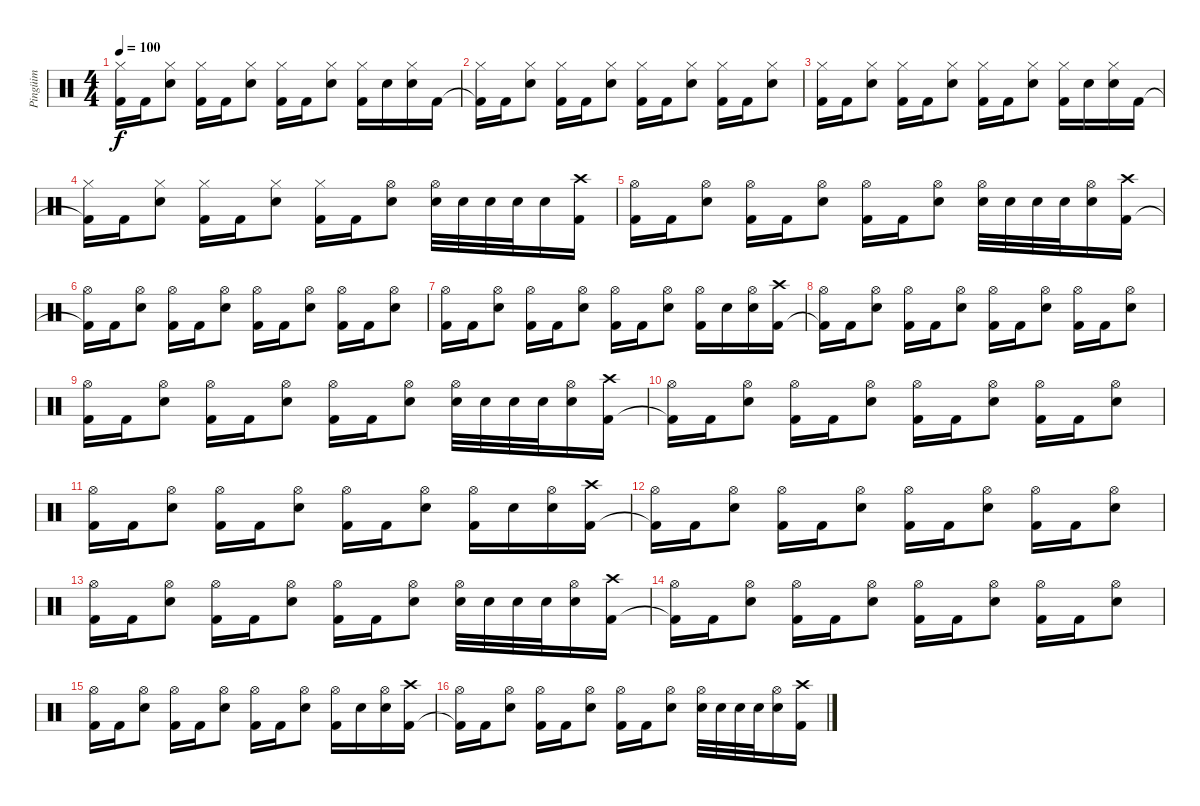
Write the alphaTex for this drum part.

\track ("Pingüim" "Pingüim") {instrument percussion}
\staff {score}
\articulation defaults
\ts (4 4)
\tempo 100
\clef neutral
\ks c
("Kick (hit) 2" "Hi-Hat (closed)").16{dy f} "Kick (hit) 2".16 ("Snare (hit) 2" "Hi-Hat (closed)").8 ("Kick (hit) 2" "Hi-Hat (closed)").16 "Kick (hit) 2".16 ("Snare (hit) 2" "Hi-Hat (closed)").8 ("Kick (hit) 2" "Hi-Hat (closed)").16 "Kick (hit) 2".16 ("Snare (hit) 2" "Hi-Hat (closed)").8 ("Kick (hit) 2" "Hi-Hat (closed)").16 "Snare (hit) 2".16 ("Snare (hit) 2" "Hi-Hat (closed)").16 "Kick (hit) 2".16 |
("Kick (hit) 2"{t} "Hi-Hat (closed)").16 "Kick (hit) 2".16 ("Snare (hit) 2" "Hi-Hat (closed)").8 ("Kick (hit) 2" "Hi-Hat (closed)").16 "Kick (hit) 2".16 ("Snare (hit) 2" "Hi-Hat (closed)").8 ("Kick (hit) 2" "Hi-Hat (closed)").16 "Kick (hit) 2".16 ("Snare (hit) 2" "Hi-Hat (closed)").8 ("Kick (hit) 2" "Hi-Hat (closed)").16 "Kick (hit) 2".16 ("Snare (hit) 2" "Hi-Hat (closed)").8 |
("Kick (hit) 2" "Hi-Hat (closed)").16 "Kick (hit) 2".16 ("Snare (hit) 2" "Hi-Hat (closed)").8 ("Kick (hit) 2" "Hi-Hat (closed)").16 "Kick (hit) 2".16 ("Snare (hit) 2" "Hi-Hat (closed)").8 ("Kick (hit) 2" "Hi-Hat (closed)").16 "Kick (hit) 2".16 ("Snare (hit) 2" "Hi-Hat (closed)").8 ("Kick (hit) 2" "Hi-Hat (closed)").16 "Snare (hit) 2".16 ("Snare (hit) 2" "Hi-Hat (closed)").16 "Kick (hit) 2".16 |
("Kick (hit) 2"{t} "Hi-Hat (closed)").16 "Kick (hit) 2".16 ("Snare (hit) 2" "Hi-Hat (closed)").8 ("Kick (hit) 2" "Hi-Hat (closed)").16 "Kick (hit) 2".16 ("Snare (hit) 2" "Hi-Hat (closed)").8 ("Kick (hit) 2" "Hi-Hat (closed)").16 "Kick (hit) 2".16 ("Snare (hit) 2" "Hi-Hat (open)").8 ("Snare (hit) 2" "Hi-Hat (open)").32 "Snare (hit) 2".32 "Snare (hit) 2".32 "Snare (hit) 2".32 "Snare (hit) 2".16 ("Kick (hit) 2" "Crash high (hit)").16 |
("Kick (hit) 2" "Hi-Hat (open)").16 "Kick (hit) 2".16 ("Snare (hit) 2" "Hi-Hat (open)").8 ("Kick (hit) 2" "Hi-Hat (open)").16 "Kick (hit) 2".16 ("Snare (hit) 2" "Hi-Hat (open)").8 ("Kick (hit) 2" "Hi-Hat (open)").16 "Kick (hit) 2".16 ("Snare (hit) 2" "Hi-Hat (open)").8 ("Snare (hit) 2" "Hi-Hat (open)").32 "Snare (hit) 2".32 "Snare (hit) 2".32 "Snare (hit) 2".32 ("Snare (hit) 2" "Hi-Hat (open)").16 ("Kick (hit) 2" "Crash high (hit)").16 |
("Kick (hit) 2"{t} "Hi-Hat (open)").16 "Kick (hit) 2".16 ("Snare (hit) 2" "Hi-Hat (open)").8 ("Kick (hit) 2" "Hi-Hat (open)").16 "Kick (hit) 2".16 ("Snare (hit) 2" "Hi-Hat (open)").8 ("Kick (hit) 2" "Hi-Hat (open)").16 "Kick (hit) 2".16 ("Snare (hit) 2" "Hi-Hat (open)").8 ("Kick (hit) 2" "Hi-Hat (open)").16 "Kick (hit) 2".16 ("Snare (hit) 2" "Hi-Hat (open)").8 |
("Kick (hit) 2" "Hi-Hat (open)").16 "Kick (hit) 2".16 ("Snare (hit) 2" "Hi-Hat (open)").8 ("Kick (hit) 2" "Hi-Hat (open)").16 "Kick (hit) 2".16 ("Snare (hit) 2" "Hi-Hat (open)").8 ("Kick (hit) 2" "Hi-Hat (open)").16 "Kick (hit) 2".16 ("Snare (hit) 2" "Hi-Hat (open)").8 ("Kick (hit) 2" "Hi-Hat (open)").16 "Snare (hit) 2".16 ("Snare (hit) 2" "Hi-Hat (open)").16 ("Kick (hit) 2" "Crash high (hit)").16 |
("Kick (hit) 2"{t} "Hi-Hat (open)").16 "Kick (hit) 2".16 ("Snare (hit) 2" "Hi-Hat (open)").8 ("Kick (hit) 2" "Hi-Hat (open)").16 "Kick (hit) 2".16 ("Snare (hit) 2" "Hi-Hat (open)").8 ("Kick (hit) 2" "Hi-Hat (open)").16 "Kick (hit) 2".16 ("Snare (hit) 2" "Hi-Hat (open)").8 ("Kick (hit) 2" "Hi-Hat (open)").16 "Kick (hit) 2".16 ("Snare (hit) 2" "Hi-Hat (open)").8 |
("Kick (hit) 2" "Hi-Hat (open)").16 "Kick (hit) 2".16 ("Snare (hit) 2" "Hi-Hat (open)").8 ("Kick (hit) 2" "Hi-Hat (open)").16 "Kick (hit) 2".16 ("Snare (hit) 2" "Hi-Hat (open)").8 ("Kick (hit) 2" "Hi-Hat (open)").16 "Kick (hit) 2".16 ("Snare (hit) 2" "Hi-Hat (open)").8 ("Snare (hit) 2" "Hi-Hat (open)").32 "Snare (hit) 2".32 "Snare (hit) 2".32 "Snare (hit) 2".32 ("Snare (hit) 2" "Hi-Hat (open)").16 ("Kick (hit) 2" "Crash high (hit)").16 |
("Kick (hit) 2"{t} "Hi-Hat (open)").16 "Kick (hit) 2".16 ("Snare (hit) 2" "Hi-Hat (open)").8 ("Kick (hit) 2" "Hi-Hat (open)").16 "Kick (hit) 2".16 ("Snare (hit) 2" "Hi-Hat (open)").8 ("Kick (hit) 2" "Hi-Hat (open)").16 "Kick (hit) 2".16 ("Snare (hit) 2" "Hi-Hat (open)").8 ("Kick (hit) 2" "Hi-Hat (open)").16 "Kick (hit) 2".16 ("Snare (hit) 2" "Hi-Hat (open)").8 |
("Kick (hit) 2" "Hi-Hat (open)").16 "Kick (hit) 2".16 ("Snare (hit) 2" "Hi-Hat (open)").8 ("Kick (hit) 2" "Hi-Hat (open)").16 "Kick (hit) 2".16 ("Snare (hit) 2" "Hi-Hat (open)").8 ("Kick (hit) 2" "Hi-Hat (open)").16 "Kick (hit) 2".16 ("Snare (hit) 2" "Hi-Hat (open)").8 ("Kick (hit) 2" "Hi-Hat (open)").16 "Snare (hit) 2".16 ("Snare (hit) 2" "Hi-Hat (open)").16 ("Kick (hit) 2" "Crash high (hit)").16 |
("Kick (hit) 2"{t} "Hi-Hat (open)").16 "Kick (hit) 2".16 ("Snare (hit) 2" "Hi-Hat (open)").8 ("Kick (hit) 2" "Hi-Hat (open)").16 "Kick (hit) 2".16 ("Snare (hit) 2" "Hi-Hat (open)").8 ("Kick (hit) 2" "Hi-Hat (open)").16 "Kick (hit) 2".16 ("Snare (hit) 2" "Hi-Hat (open)").8 ("Kick (hit) 2" "Hi-Hat (open)").16 "Kick (hit) 2".16 ("Snare (hit) 2" "Hi-Hat (open)").8 |
("Kick (hit) 2" "Hi-Hat (open)").16 "Kick (hit) 2".16 ("Snare (hit) 2" "Hi-Hat (open)").8 ("Kick (hit) 2" "Hi-Hat (open)").16 "Kick (hit) 2".16 ("Snare (hit) 2" "Hi-Hat (open)").8 ("Kick (hit) 2" "Hi-Hat (open)").16 "Kick (hit) 2".16 ("Snare (hit) 2" "Hi-Hat (open)").8 ("Snare (hit) 2" "Hi-Hat (open)").32 "Snare (hit) 2".32 "Snare (hit) 2".32 "Snare (hit) 2".32 ("Snare (hit) 2" "Hi-Hat (open)").16 ("Kick (hit) 2" "Crash high (hit)").16 |
("Kick (hit) 2"{t} "Hi-Hat (open)").16 "Kick (hit) 2".16 ("Snare (hit) 2" "Hi-Hat (open)").8 ("Kick (hit) 2" "Hi-Hat (open)").16 "Kick (hit) 2".16 ("Snare (hit) 2" "Hi-Hat (open)").8 ("Kick (hit) 2" "Hi-Hat (open)").16 "Kick (hit) 2".16 ("Snare (hit) 2" "Hi-Hat (open)").8 ("Kick (hit) 2" "Hi-Hat (open)").16 "Kick (hit) 2".16 ("Snare (hit) 2" "Hi-Hat (open)").8 |
("Kick (hit) 2" "Hi-Hat (open)").16 "Kick (hit) 2".16 ("Snare (hit) 2" "Hi-Hat (open)").8 ("Kick (hit) 2" "Hi-Hat (open)").16 "Kick (hit) 2".16 ("Snare (hit) 2" "Hi-Hat (open)").8 ("Kick (hit) 2" "Hi-Hat (open)").16 "Kick (hit) 2".16 ("Snare (hit) 2" "Hi-Hat (open)").8 ("Kick (hit) 2" "Hi-Hat (open)").16 "Snare (hit) 2".16 ("Snare (hit) 2" "Hi-Hat (open)").16 ("Kick (hit) 2" "Crash high (hit)").16 |
("Kick (hit) 2"{t} "Hi-Hat (open)").16 "Kick (hit) 2".16 ("Snare (hit) 2" "Hi-Hat (open)").8 ("Kick (hit) 2" "Hi-Hat (open)").16 "Kick (hit) 2".16 ("Snare (hit) 2" "Hi-Hat (open)").8 ("Kick (hit) 2" "Hi-Hat (open)").16 "Kick (hit) 2".16 ("Snare (hit) 2" "Hi-Hat (open)").8 ("Snare (hit) 2" "Hi-Hat (open)").32 "Snare (hit) 2".32 "Snare (hit) 2".32 "Snare (hit) 2".32 ("Snare (hit) 2" "Hi-Hat (open)").16 ("Kick (hit) 2" "Crash high (hit)").16
